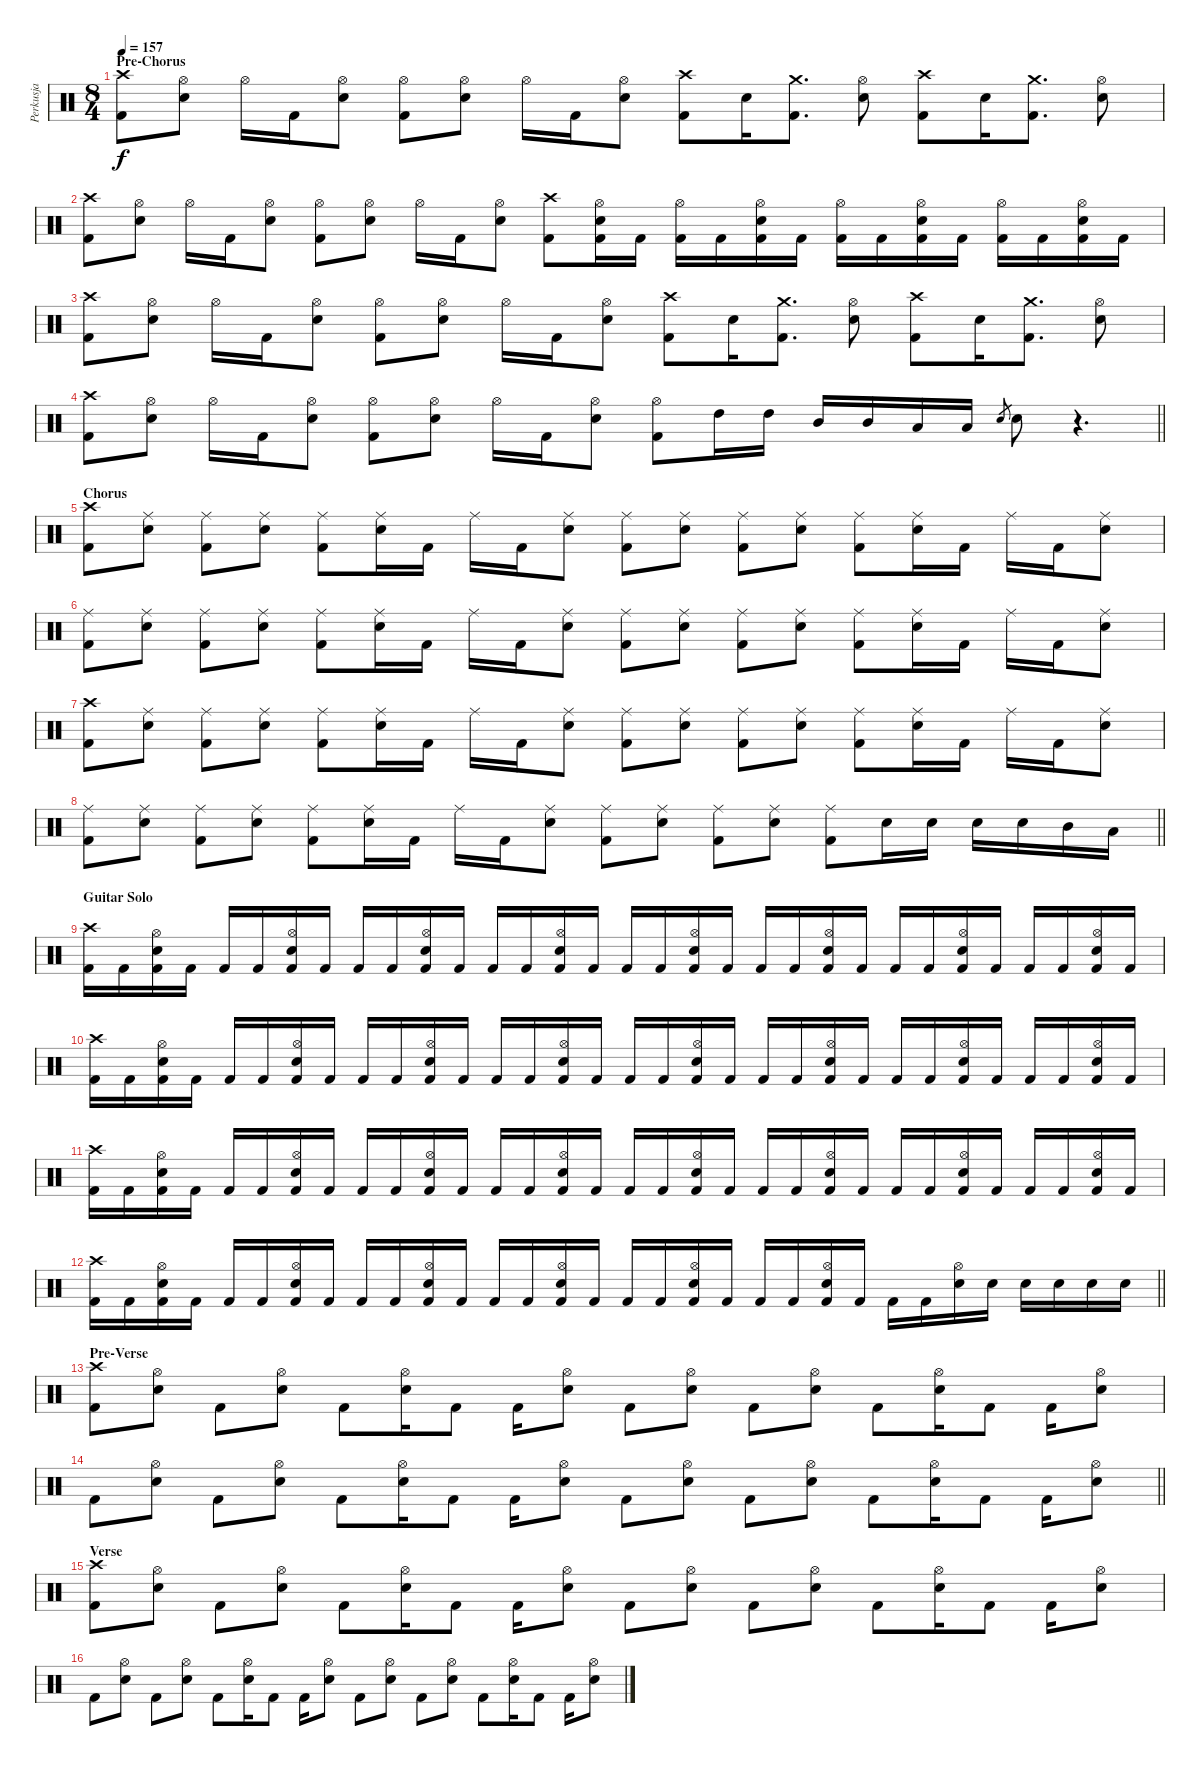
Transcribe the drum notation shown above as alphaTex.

\track ("Perkusja" "Perkusja") {instrument percussion}
\staff {score}
\articulation defaults
\ts (8 4)
\section ("" "Pre-Chorus")
\tempo 157
\clef neutral
\ks c
("Crash high (hit)" "Kick (hit) 2").8{dy f} ("Hi-Hat (open)" "Snare (hit) 2").8 "Hi-Hat (open)".16 "Kick (hit) 2".16 ("Hi-Hat (open)" "Snare (hit) 2").8 ("Hi-Hat (open)" "Kick (hit) 2").8 ("Hi-Hat (open)" "Snare (hit) 2").8 "Hi-Hat (open)".16 "Kick (hit) 2".16 ("Hi-Hat (open)" "Snare (hit) 2").8 ("Crash high (hit)" "Kick (hit) 2").8 "Snare (hit) 2".16 ("Crash medium (hit)" "Kick (hit) 2").8{d} ("Hi-Hat (open)" "Snare (hit) 2").8 ("Crash high (hit)" "Kick (hit) 2").8 "Snare (hit) 2".16 ("Crash medium (hit)" "Kick (hit) 2").8{d} ("Hi-Hat (open)" "Snare (hit) 2").8 |
("Crash high (hit)" "Kick (hit) 2").8 ("Hi-Hat (open)" "Snare (hit) 2").8 "Hi-Hat (open)".16 "Kick (hit) 2".16 ("Hi-Hat (open)" "Snare (hit) 2").8 ("Hi-Hat (open)" "Kick (hit) 2").8 ("Hi-Hat (open)" "Snare (hit) 2").8 "Hi-Hat (open)".16 "Kick (hit) 2".16 ("Hi-Hat (open)" "Snare (hit) 2").8 ("Crash high (hit)" "Kick (hit) 2").8 ("Hi-Hat (open)" "Snare (hit) 2" "Kick (hit) 2").16 "Kick (hit) 2".16 ("Hi-Hat (open)" "Kick (hit) 2").16 "Kick (hit) 2".16 ("Hi-Hat (open)" "Snare (hit) 2" "Kick (hit) 2").16 "Kick (hit) 2".16 ("Hi-Hat (open)" "Kick (hit) 2").16 "Kick (hit) 2".16 ("Hi-Hat (open)" "Snare (hit) 2" "Kick (hit) 2").16 "Kick (hit) 2".16 ("Hi-Hat (open)" "Kick (hit) 2").16 "Kick (hit) 2".16 ("Hi-Hat (open)" "Snare (hit) 2" "Kick (hit) 2").16 "Kick (hit) 2".16 |
("Crash high (hit)" "Kick (hit) 2").8 ("Hi-Hat (open)" "Snare (hit) 2").8 "Hi-Hat (open)".16 "Kick (hit) 2".16 ("Hi-Hat (open)" "Snare (hit) 2").8 ("Hi-Hat (open)" "Kick (hit) 2").8 ("Hi-Hat (open)" "Snare (hit) 2").8 "Hi-Hat (open)".16 "Kick (hit) 2".16 ("Hi-Hat (open)" "Snare (hit) 2").8 ("Crash high (hit)" "Kick (hit) 2").8 "Snare (hit) 2".16 ("Crash medium (hit)" "Kick (hit) 2").8{d} ("Hi-Hat (open)" "Snare (hit) 2").8 ("Crash high (hit)" "Kick (hit) 2").8 "Snare (hit) 2".16 ("Crash medium (hit)" "Kick (hit) 2").8{d} ("Hi-Hat (open)" "Snare (hit) 2").8 |
\barLineRight lightlight
("Crash high (hit)" "Kick (hit) 2").8 ("Hi-Hat (open)" "Snare (hit) 2").8 "Hi-Hat (open)".16 "Kick (hit) 2".16 ("Hi-Hat (open)" "Snare (hit) 2").8 ("Hi-Hat (open)" "Kick (hit) 2").8 ("Hi-Hat (open)" "Snare (hit) 2").8 "Hi-Hat (open)".16 "Kick (hit) 2".16 ("Hi-Hat (open)" "Snare (hit) 2").8 ("Hi-Hat (open)" "Kick (hit) 2").8 "High Tom (hit)".16 "High Tom (hit)".16 "Mid Tom (hit)".16 "Mid Tom (hit)".16 "Low Tom (hit)".16 "Low Tom (hit)".16 "Snare (hit) 2".8{gr} "Snare (hit) 2".8 r.4{d} |
\section ("" "Chorus")
("Crash high (hit)" "Kick (hit) 2").8 ("Ride (middle)" "Snare (hit) 2").8 ("Ride (middle)" "Kick (hit) 2").8 ("Ride (middle)" "Snare (hit) 2").8 ("Ride (middle)" "Kick (hit) 2").8 ("Ride (middle)" "Snare (hit) 2").16 "Kick (hit) 2".16 "Ride (middle)".16 "Kick (hit) 2".16 ("Ride (middle)" "Snare (hit) 2").8 ("Ride (middle)" "Kick (hit) 2").8 ("Ride (middle)" "Snare (hit) 2").8 ("Ride (middle)" "Kick (hit) 2").8 ("Ride (middle)" "Snare (hit) 2").8 ("Ride (middle)" "Kick (hit) 2").8 ("Ride (middle)" "Snare (hit) 2").16 "Kick (hit) 2".16 "Ride (middle)".16 "Kick (hit) 2".16 ("Ride (middle)" "Snare (hit) 2").8 |
("Ride (middle)" "Kick (hit) 2").8 ("Ride (middle)" "Snare (hit) 2").8 ("Ride (middle)" "Kick (hit) 2").8 ("Ride (middle)" "Snare (hit) 2").8 ("Ride (middle)" "Kick (hit) 2").8 ("Ride (middle)" "Snare (hit) 2").16 "Kick (hit) 2".16 "Ride (middle)".16 "Kick (hit) 2".16 ("Ride (middle)" "Snare (hit) 2").8 ("Ride (middle)" "Kick (hit) 2").8 ("Ride (middle)" "Snare (hit) 2").8 ("Ride (middle)" "Kick (hit) 2").8 ("Ride (middle)" "Snare (hit) 2").8 ("Ride (middle)" "Kick (hit) 2").8 ("Ride (middle)" "Snare (hit) 2").16 "Kick (hit) 2".16 "Ride (middle)".16 "Kick (hit) 2".16 ("Ride (middle)" "Snare (hit) 2").8 |
("Crash high (hit)" "Kick (hit) 2").8 ("Ride (middle)" "Snare (hit) 2").8 ("Ride (middle)" "Kick (hit) 2").8 ("Ride (middle)" "Snare (hit) 2").8 ("Ride (middle)" "Kick (hit) 2").8 ("Ride (middle)" "Snare (hit) 2").16 "Kick (hit) 2".16 "Ride (middle)".16 "Kick (hit) 2".16 ("Ride (middle)" "Snare (hit) 2").8 ("Ride (middle)" "Kick (hit) 2").8 ("Ride (middle)" "Snare (hit) 2").8 ("Ride (middle)" "Kick (hit) 2").8 ("Ride (middle)" "Snare (hit) 2").8 ("Ride (middle)" "Kick (hit) 2").8 ("Ride (middle)" "Snare (hit) 2").16 "Kick (hit) 2".16 "Ride (middle)".16 "Kick (hit) 2".16 ("Ride (middle)" "Snare (hit) 2").8 |
\barLineRight lightlight
("Ride (middle)" "Kick (hit) 2").8 ("Ride (middle)" "Snare (hit) 2").8 ("Ride (middle)" "Kick (hit) 2").8 ("Ride (middle)" "Snare (hit) 2").8 ("Ride (middle)" "Kick (hit) 2").8 ("Ride (middle)" "Snare (hit) 2").16 "Kick (hit) 2".16 "Ride (middle)".16 "Kick (hit) 2".16 ("Ride (middle)" "Snare (hit) 2").8 ("Ride (middle)" "Kick (hit) 2").8 ("Ride (middle)" "Snare (hit) 2").8 ("Ride (middle)" "Kick (hit) 2").8 ("Ride (middle)" "Snare (hit) 2").8 ("Ride (middle)" "Kick (hit) 2").8 "Snare (hit) 2".16 "Snare (hit) 2".16 "Snare (hit) 2".16 "Snare (hit) 2".16 "Mid Tom (hit)".16 "Low Tom (hit)".16 |
\section ("" "Guitar Solo")
("Crash high (hit)" "Kick (hit) 2").16 "Kick (hit) 2".16 ("Hi-Hat (open)" "Snare (hit) 2" "Kick (hit) 2").16 "Kick (hit) 2".16 "Kick (hit) 2".16 "Kick (hit) 2".16 ("Hi-Hat (open)" "Snare (hit) 2" "Kick (hit) 2").16 "Kick (hit) 2".16 "Kick (hit) 2".16 "Kick (hit) 2".16 ("Hi-Hat (open)" "Snare (hit) 2" "Kick (hit) 2").16 "Kick (hit) 2".16 "Kick (hit) 2".16 "Kick (hit) 2".16 ("Hi-Hat (open)" "Snare (hit) 2" "Kick (hit) 2").16 "Kick (hit) 2".16 "Kick (hit) 2".16 "Kick (hit) 2".16 ("Hi-Hat (open)" "Snare (hit) 2" "Kick (hit) 2").16 "Kick (hit) 2".16 "Kick (hit) 2".16 "Kick (hit) 2".16 ("Hi-Hat (open)" "Snare (hit) 2" "Kick (hit) 2").16 "Kick (hit) 2".16 "Kick (hit) 2".16 "Kick (hit) 2".16 ("Hi-Hat (open)" "Snare (hit) 2" "Kick (hit) 2").16 "Kick (hit) 2".16 "Kick (hit) 2".16 "Kick (hit) 2".16 ("Hi-Hat (open)" "Snare (hit) 2" "Kick (hit) 2").16 "Kick (hit) 2".16 |
("Crash high (hit)" "Kick (hit) 2").16 "Kick (hit) 2".16 ("Hi-Hat (open)" "Snare (hit) 2" "Kick (hit) 2").16 "Kick (hit) 2".16 "Kick (hit) 2".16 "Kick (hit) 2".16 ("Hi-Hat (open)" "Snare (hit) 2" "Kick (hit) 2").16 "Kick (hit) 2".16 "Kick (hit) 2".16 "Kick (hit) 2".16 ("Hi-Hat (open)" "Snare (hit) 2" "Kick (hit) 2").16 "Kick (hit) 2".16 "Kick (hit) 2".16 "Kick (hit) 2".16 ("Hi-Hat (open)" "Snare (hit) 2" "Kick (hit) 2").16 "Kick (hit) 2".16 "Kick (hit) 2".16 "Kick (hit) 2".16 ("Hi-Hat (open)" "Snare (hit) 2" "Kick (hit) 2").16 "Kick (hit) 2".16 "Kick (hit) 2".16 "Kick (hit) 2".16 ("Hi-Hat (open)" "Snare (hit) 2" "Kick (hit) 2").16 "Kick (hit) 2".16 "Kick (hit) 2".16 "Kick (hit) 2".16 ("Hi-Hat (open)" "Snare (hit) 2" "Kick (hit) 2").16 "Kick (hit) 2".16 "Kick (hit) 2".16 "Kick (hit) 2".16 ("Hi-Hat (open)" "Snare (hit) 2" "Kick (hit) 2").16 "Kick (hit) 2".16 |
("Crash high (hit)" "Kick (hit) 2").16 "Kick (hit) 2".16 ("Hi-Hat (open)" "Snare (hit) 2" "Kick (hit) 2").16 "Kick (hit) 2".16 "Kick (hit) 2".16 "Kick (hit) 2".16 ("Hi-Hat (open)" "Snare (hit) 2" "Kick (hit) 2").16 "Kick (hit) 2".16 "Kick (hit) 2".16 "Kick (hit) 2".16 ("Hi-Hat (open)" "Snare (hit) 2" "Kick (hit) 2").16 "Kick (hit) 2".16 "Kick (hit) 2".16 "Kick (hit) 2".16 ("Hi-Hat (open)" "Snare (hit) 2" "Kick (hit) 2").16 "Kick (hit) 2".16 "Kick (hit) 2".16 "Kick (hit) 2".16 ("Hi-Hat (open)" "Snare (hit) 2" "Kick (hit) 2").16 "Kick (hit) 2".16 "Kick (hit) 2".16 "Kick (hit) 2".16 ("Hi-Hat (open)" "Snare (hit) 2" "Kick (hit) 2").16 "Kick (hit) 2".16 "Kick (hit) 2".16 "Kick (hit) 2".16 ("Hi-Hat (open)" "Snare (hit) 2" "Kick (hit) 2").16 "Kick (hit) 2".16 "Kick (hit) 2".16 "Kick (hit) 2".16 ("Hi-Hat (open)" "Snare (hit) 2" "Kick (hit) 2").16 "Kick (hit) 2".16 |
\barLineRight lightlight
("Crash high (hit)" "Kick (hit) 2").16 "Kick (hit) 2".16 ("Hi-Hat (open)" "Snare (hit) 2" "Kick (hit) 2").16 "Kick (hit) 2".16 "Kick (hit) 2".16 "Kick (hit) 2".16 ("Hi-Hat (open)" "Snare (hit) 2" "Kick (hit) 2").16 "Kick (hit) 2".16 "Kick (hit) 2".16 "Kick (hit) 2".16 ("Hi-Hat (open)" "Snare (hit) 2" "Kick (hit) 2").16 "Kick (hit) 2".16 "Kick (hit) 2".16 "Kick (hit) 2".16 ("Hi-Hat (open)" "Snare (hit) 2" "Kick (hit) 2").16 "Kick (hit) 2".16 "Kick (hit) 2".16 "Kick (hit) 2".16 ("Hi-Hat (open)" "Snare (hit) 2" "Kick (hit) 2").16 "Kick (hit) 2".16 "Kick (hit) 2".16 "Kick (hit) 2".16 ("Hi-Hat (open)" "Snare (hit) 2" "Kick (hit) 2").16 "Kick (hit) 2".16 "Kick (hit) 2".16 "Kick (hit) 2".16 ("Hi-Hat (open)" "Snare (hit) 2").16 "Snare (hit) 2".16 "Snare (hit) 2".16 "Snare (hit) 2".16 "Snare (hit) 2".16 "Snare (hit) 2".16 |
\section ("" "Pre-Verse")
("Crash high (hit)" "Kick (hit) 2").8 ("Hi-Hat (open)" "Snare (hit) 2").8 "Kick (hit) 2".8 ("Hi-Hat (open)" "Snare (hit) 2").8 "Kick (hit) 2".8 ("Hi-Hat (open)" "Snare (hit) 2").16 "Kick (hit) 2".8 "Kick (hit) 2".16 ("Hi-Hat (open)" "Snare (hit) 2").8 "Kick (hit) 2".8 ("Hi-Hat (open)" "Snare (hit) 2").8 "Kick (hit) 2".8 ("Hi-Hat (open)" "Snare (hit) 2").8 "Kick (hit) 2".8 ("Hi-Hat (open)" "Snare (hit) 2").16 "Kick (hit) 2".8 "Kick (hit) 2".16 ("Hi-Hat (open)" "Snare (hit) 2").8 |
\barLineRight lightlight "Kick (hit) 2".8
("Hi-Hat (open)" "Snare (hit) 2").8 "Kick (hit) 2".8 ("Hi-Hat (open)" "Snare (hit) 2").8 "Kick (hit) 2".8 ("Hi-Hat (open)" "Snare (hit) 2").16 "Kick (hit) 2".8 "Kick (hit) 2".16 ("Hi-Hat (open)" "Snare (hit) 2").8 "Kick (hit) 2".8 ("Hi-Hat (open)" "Snare (hit) 2").8 "Kick (hit) 2".8 ("Hi-Hat (open)" "Snare (hit) 2").8 "Kick (hit) 2".8 ("Hi-Hat (open)" "Snare (hit) 2").16 "Kick (hit) 2".8 "Kick (hit) 2".16 ("Hi-Hat (open)" "Snare (hit) 2").8 |
\section ("" "Verse")
("Crash high (hit)" "Kick (hit) 2").8 ("Hi-Hat (open)" "Snare (hit) 2").8 "Kick (hit) 2".8 ("Hi-Hat (open)" "Snare (hit) 2").8 "Kick (hit) 2".8 ("Hi-Hat (open)" "Snare (hit) 2").16 "Kick (hit) 2".8 "Kick (hit) 2".16 ("Hi-Hat (open)" "Snare (hit) 2").8 "Kick (hit) 2".8 ("Hi-Hat (open)" "Snare (hit) 2").8 "Kick (hit) 2".8 ("Hi-Hat (open)" "Snare (hit) 2").8 "Kick (hit) 2".8 ("Hi-Hat (open)" "Snare (hit) 2").16 "Kick (hit) 2".8 "Kick (hit) 2".16 ("Hi-Hat (open)" "Snare (hit) 2").8 |
"Kick (hit) 2".8 ("Hi-Hat (open)" "Snare (hit) 2").8 "Kick (hit) 2".8 ("Hi-Hat (open)" "Snare (hit) 2").8 "Kick (hit) 2".8 ("Hi-Hat (open)" "Snare (hit) 2").16 "Kick (hit) 2".8 "Kick (hit) 2".16 ("Hi-Hat (open)" "Snare (hit) 2").8 "Kick (hit) 2".8 ("Hi-Hat (open)" "Snare (hit) 2").8 "Kick (hit) 2".8 ("Hi-Hat (open)" "Snare (hit) 2").8 "Kick (hit) 2".8 ("Hi-Hat (open)" "Snare (hit) 2").16 "Kick (hit) 2".8 "Kick (hit) 2".16 ("Hi-Hat (open)" "Snare (hit) 2").8
